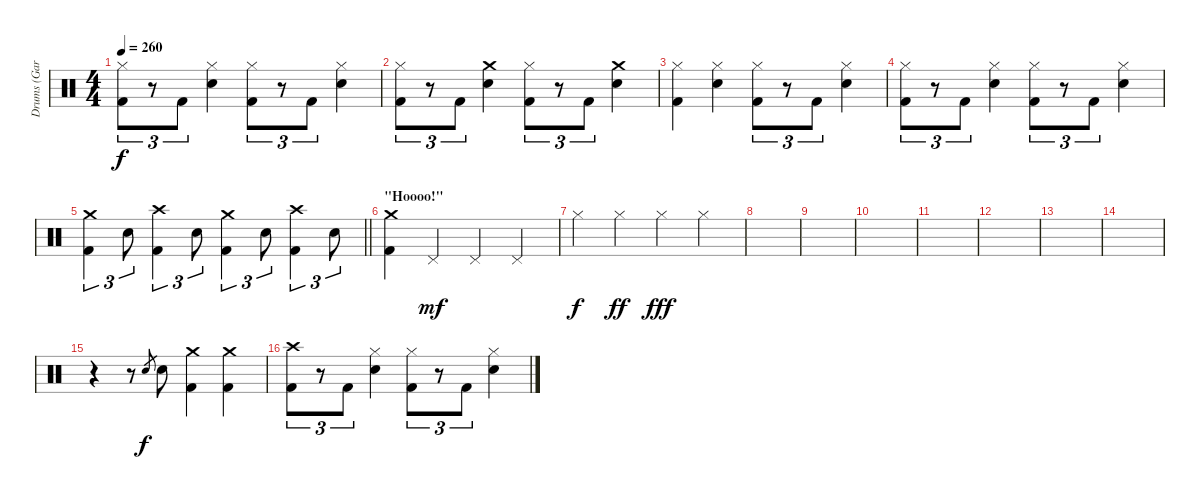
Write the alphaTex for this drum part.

\track ("Drums (Gar Samuelson)" "Drums (Gar") {instrument percussion}
\staff {score}
\articulation defaults
\ts (4 4)
\tempo 260
\clef neutral
\ks c
("Hi-Hat (closed)" "Kick (hit) 2").8{tu (3 2) dy f} r.8{tu (3 2)} "Kick (hit) 2".8{tu (3 2)} ("Hi-Hat (closed)" "Snare (hit) 2").4 ("Hi-Hat (closed)" "Kick (hit) 2").8{tu (3 2)} r.8{tu (3 2)} "Kick (hit) 2".8{tu (3 2)} ("Hi-Hat (closed)" "Snare (hit) 2").4 |
("Hi-Hat (closed)" "Kick (hit) 2").8{tu (3 2)} r.8{tu (3 2)} "Kick (hit) 2".8{tu (3 2)} ("Crash medium (hit)" "Snare (hit) 2").4 ("Hi-Hat (closed)" "Kick (hit) 2").8{tu (3 2)} r.8{tu (3 2)} "Kick (hit) 2".8{tu (3 2)} ("Crash medium (hit)" "Snare (hit) 2").4 |
("Hi-Hat (closed)" "Kick (hit) 2").4 ("Hi-Hat (closed)" "Snare (hit) 2").4 ("Hi-Hat (closed)" "Kick (hit) 2").8{tu (3 2)} r.8{tu (3 2)} "Kick (hit) 2".8{tu (3 2)} ("Hi-Hat (closed)" "Snare (hit) 2").4 |
("Hi-Hat (closed)" "Kick (hit) 2").8{tu (3 2)} r.8{tu (3 2)} "Kick (hit) 2".8{tu (3 2)} ("Hi-Hat (closed)" "Snare (hit) 2").4 ("Hi-Hat (closed)" "Kick (hit) 2").8{tu (3 2)} r.8{tu (3 2)} "Kick (hit) 2".8{tu (3 2)} ("Hi-Hat (closed)" "Snare (hit) 2").4 |
\barLineRight lightlight
("Crash medium (hit)" "Kick (hit) 2").4{tu (3 2)} "Snare (hit) 2".8{tu (3 2)} ("Crash high (hit)" "Kick (hit) 2").4{tu (3 2)} "Snare (hit) 2".8{tu (3 2)} ("Crash medium (hit)" "Kick (hit) 2").4{tu (3 2)} "Snare (hit) 2".8{tu (3 2)} ("Crash high (hit)" "Kick (hit) 2").4{tu (3 2)} "Snare (hit) 2".8{tu (3 2)} |
\section ("" "\"Hoooo!\"")
("Crash medium (hit)" "Kick (hit) 2").4 "Pedal Hi-Hat (hit)".4{dy mf} "Pedal Hi-Hat (hit)".4 "Pedal Hi-Hat (hit)".4 |
"Hi-Hat (closed)".4{dy f} "Hi-Hat (closed)".4{dy ff} "Hi-Hat (closed)".4{dy fff} "Hi-Hat (closed)".4 |
|
|
|
|
|
|
|
r.4 r.8 "Snare (hit) 2".8{gr dy f} "Snare (hit) 2".8 ("Crash medium (hit)" "Kick (hit) 2").4 ("Crash medium (hit)" "Kick (hit) 2").4 |
("Crash high (hit)" "Kick (hit) 2").8{tu (3 2)} r.8{tu (3 2)} "Kick (hit) 2".8{tu (3 2)} ("Hi-Hat (closed)" "Snare (hit) 2").4 ("Hi-Hat (closed)" "Kick (hit) 2").8{tu (3 2)} r.8{tu (3 2)} "Kick (hit) 2".8{tu (3 2)} ("Hi-Hat (closed)" "Snare (hit) 2").4
